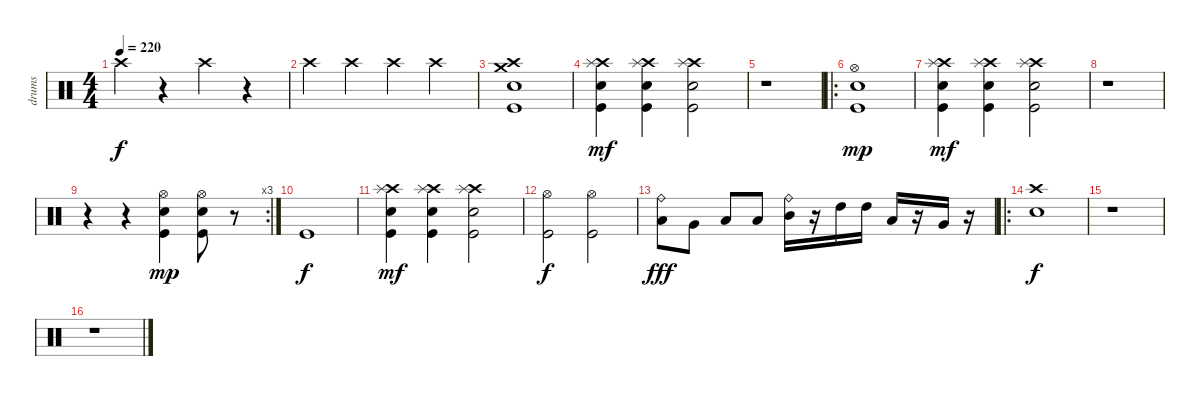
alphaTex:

\track ("drums" "drums") {instrument percussion}
\staff {score}
\articulation defaults
\ts (4 4)
\tempo 220
\clef neutral
\ks c "Crash high (hit)".4{dy f}
r.4 "Crash high (hit)".4 r.4 |
"Crash high (hit)".4 "Crash high (hit)".4 "Crash high (hit)".4 "Crash high (hit)".4 |
("Snare (hit) 2" "Crash high (hit)" "Crash medium (hit)" "Kick (hit)").1 |
("Crash high (hit)" "Splash (hit)" "Snare (hit) 2" "Kick (hit)").4{dy mf} ("Crash high (hit)" "Splash (hit)" "Snare (hit) 2" "Kick (hit)").4 ("Crash high (hit)" "Splash (hit)" "Snare (hit) 2" "Kick (hit)").2 |
r.1 |
\ro
("Electric Snare (hit)" "Hi-Hat (open)" "Kick (hit)").1{dy mp} |
("Crash high (hit)" "Splash (hit)" "Snare (hit) 2" "Kick (hit)").4{dy mf} ("Crash high (hit)" "Splash (hit)" "Snare (hit) 2" "Kick (hit)").4 ("Crash high (hit)" "Splash (hit)" "Snare (hit) 2" "Kick (hit)").2 |
r.1 |
\rc 3
r.4 r.4 ("Electric Snare (hit)" "Kick (hit)" "Hi-Hat (open)").4{dy mp} ("Electric Snare (hit)" "Hi-Hat (open)" "Kick (hit)").8 r.8 |
"Kick (hit)".1{dy f} |
("Crash high (hit)" "Splash (hit)" "Snare (hit) 2" "Kick (hit)").4{dy mf} ("Crash high (hit)" "Splash (hit)" "Snare (hit) 2" "Kick (hit)").4 ("Crash high (hit)" "Splash (hit)" "Snare (hit) 2" "Kick (hit)").2 |
("Hi-Hat (open)" "Kick (hit)").2{dy f} ("Hi-Hat (open)" "Kick (hit)").2 |
("Low Floor Tom (hit)" "Ride (bell)").8{dy fff} "Very Low Tom (hit)".8 "Low Tom (hit)".8 "Low Tom (hit)".8 ("Mid Tom (hit)" "Ride (bell)").16 r.16 "High Tom (hit)".16 "High Tom (hit)".16 "Low Tom (hit)".16 r.16 "Very Low Tom (hit)".16 r.16 |
\ro
("Crash high (hit)" "Electric Snare (hit)").1{dy f} |
r.1 |
r.1
